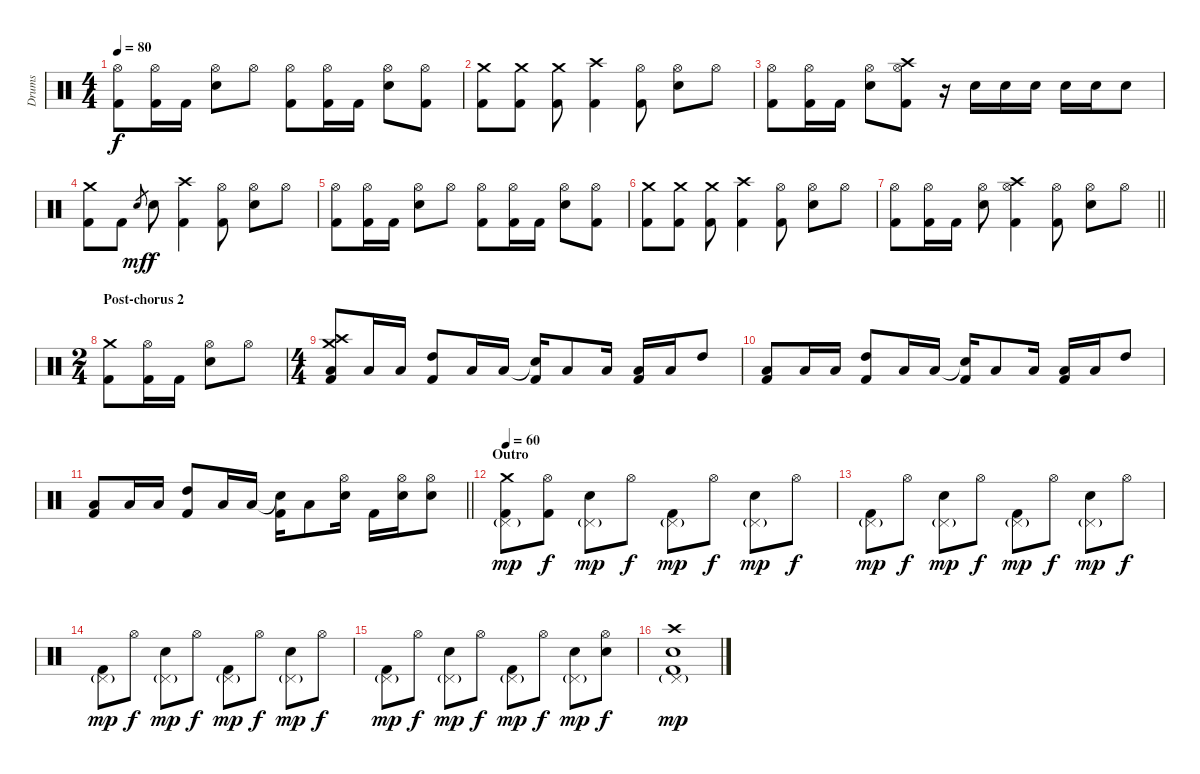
\track ("Drums" "Drums") {solo instrument percussion}
\staff {score}
\articulation defaults
\ts (4 4)
\tempo 80
\clef neutral
\ks c
("Hi-Hat (open)" "Kick (hit) 2").8{dy f} ("Hi-Hat (open)" "Kick (hit) 2").16 "Kick (hit) 2".16 ("Hi-Hat (open)" "Electric Snare (hit)").8 "Hi-Hat (open)".8 ("Hi-Hat (open)" "Kick (hit) 2").8 ("Hi-Hat (open)" "Kick (hit) 2").16 "Kick (hit) 2".16 ("Hi-Hat (open)" "Electric Snare (hit)").8 ("Hi-Hat (open)" "Kick (hit) 2").8 |
("Crash medium (hit)" "Kick (hit) 2").8 ("Crash medium (hit)" "Kick (hit) 2").8 ("Crash medium (hit)" "Kick (hit) 2").8 ("Crash high (hit)" "Kick (hit) 2").4 ("Hi-Hat (open)" "Kick (hit) 2").8 ("Hi-Hat (open)" "Electric Snare (hit)").8 "Hi-Hat (open)".8 |
("Hi-Hat (open)" "Kick (hit) 2").8 ("Hi-Hat (open)" "Kick (hit) 2").16 "Kick (hit) 2".16 ("Hi-Hat (open)" "Electric Snare (hit)").8 ("Hi-Hat (open)" "Crash high (hit)" "Kick (hit) 2").8 r.16 "Electric Snare (hit)".16 "Electric Snare (hit)".16 "Electric Snare (hit)".16 "Electric Snare (hit)".16 "Electric Snare (hit)".16 "Electric Snare (hit)".8 |
("Crash medium (hit)" "Kick (hit) 2").8 "Kick (hit) 2".8 "Electric Snare (hit)".8{gr dy mf} "Electric Snare (hit)".8{dy f} ("Crash high (hit)" "Kick (hit) 2").4 ("Hi-Hat (open)" "Kick (hit) 2").8 ("Hi-Hat (open)" "Electric Snare (hit)").8 "Hi-Hat (open)".8 |
("Hi-Hat (open)" "Kick (hit) 2").8 ("Hi-Hat (open)" "Kick (hit) 2").16 "Kick (hit) 2".16 ("Hi-Hat (open)" "Electric Snare (hit)").8 "Hi-Hat (open)".8 ("Hi-Hat (open)" "Kick (hit) 2").8 ("Hi-Hat (open)" "Kick (hit) 2").16 "Kick (hit) 2".16 ("Hi-Hat (open)" "Electric Snare (hit)").8 ("Hi-Hat (open)" "Kick (hit) 2").8 |
("Crash medium (hit)" "Kick (hit) 2").8 ("Crash medium (hit)" "Kick (hit) 2").8 ("Crash medium (hit)" "Kick (hit) 2").8 ("Crash high (hit)" "Kick (hit) 2").4 ("Hi-Hat (open)" "Kick (hit) 2").8 ("Hi-Hat (open)" "Electric Snare (hit)").8 "Hi-Hat (open)".8 |
\barLineRight lightlight
("Hi-Hat (open)" "Kick (hit) 2").8 ("Hi-Hat (open)" "Kick (hit) 2").16 "Kick (hit) 2".16 ("Hi-Hat (open)" "Electric Snare (hit)").8 ("Hi-Hat (open)" "Crash high (hit)" "Kick (hit) 2").4 ("Hi-Hat (open)" "Kick (hit) 2").8 ("Hi-Hat (open)" "Electric Snare (hit)").8 "Hi-Hat (open)".8 |
\ts (2 4)
\section ("" "Post-chorus 2")
("Crash medium (hit)" "Kick (hit) 2").8 ("Hi-Hat (open)" "Kick (hit) 2").16 "Kick (hit) 2".16 ("Hi-Hat (open)" "Electric Snare (hit)").8 "Hi-Hat (open)".8 |
\ts (4 4)
("Crash high (hit)" "Crash medium (hit)" "Low Tom (hit)" "Kick (hit) 2").8 "Low Tom (hit)".16 "Low Tom (hit)".16 ("High Tom (hit)" "Kick (hit) 2").8 "Low Tom (hit)".16 "Low Tom (hit)".16 ("Snare (hit)"{t} "Kick (hit) 2").16 "Low Tom (hit)".8 "Low Tom (hit)".16 ("Low Tom (hit)" "Kick (hit) 2").16 "Low Tom (hit)".16 "High Tom (hit)".8 |
("Low Tom (hit)" "Kick (hit) 2").8 "Low Tom (hit)".16 "Low Tom (hit)".16 ("High Tom (hit)" "Kick (hit) 2").8 "Low Tom (hit)".16 "Low Tom (hit)".16 ("Snare (hit)"{t} "Kick (hit) 2").16 "Low Tom (hit)".8 "Low Tom (hit)".16 ("Low Tom (hit)" "Kick (hit) 2").16 "Low Tom (hit)".16 "High Tom (hit)".8 |
\barLineRight lightlight
("Low Tom (hit)" "Kick (hit) 2").8 "Low Tom (hit)".16 "Low Tom (hit)".16 ("High Tom (hit)" "Kick (hit) 2").8 "Low Tom (hit)".16 "Low Tom (hit)".16 ("Snare (hit)"{t} "Kick (hit) 2").16 "Low Tom (hit)".8 ("Hi-Hat (open)" "Electric Snare (hit)").16 "Kick (hit) 2".16 ("Hi-Hat (open)" "Electric Snare (hit)").16 ("Hi-Hat (open)" "Electric Snare (hit)").8 |
\section ("" "Outro")
\tempo 60
("Pedal Hi-Hat (hit)"{g} "Crash medium (hit)" "Kick (hit) 2").8{dy mp} ("Hi-Hat (open)" "Kick (hit) 2").8{dy f} ("Pedal Hi-Hat (hit)"{g} "Electric Snare (hit)").8{dy mp} "Hi-Hat (open)".8{dy f} ("Pedal Hi-Hat (hit)"{g} "Kick (hit) 2").8{dy mp} "Hi-Hat (open)".8{dy f} ("Pedal Hi-Hat (hit)"{g} "Electric Snare (hit)").8{dy mp} "Hi-Hat (open)".8{dy f} |
("Pedal Hi-Hat (hit)"{g} "Kick (hit) 2").8{dy mp} "Hi-Hat (open)".8{dy f} ("Pedal Hi-Hat (hit)"{g} "Electric Snare (hit)").8{dy mp} "Hi-Hat (open)".8{dy f} ("Pedal Hi-Hat (hit)"{g} "Kick (hit) 2").8{dy mp} "Hi-Hat (open)".8{dy f} ("Pedal Hi-Hat (hit)"{g} "Electric Snare (hit)").8{dy mp} "Hi-Hat (open)".8{dy f} |
("Pedal Hi-Hat (hit)"{g} "Kick (hit) 2").8{dy mp} "Hi-Hat (open)".8{dy f} ("Pedal Hi-Hat (hit)"{g} "Electric Snare (hit)").8{dy mp} "Hi-Hat (open)".8{dy f} ("Pedal Hi-Hat (hit)"{g} "Kick (hit) 2").8{dy mp} "Hi-Hat (open)".8{dy f} ("Pedal Hi-Hat (hit)"{g} "Electric Snare (hit)").8{dy mp} "Hi-Hat (open)".8{dy f} |
("Pedal Hi-Hat (hit)"{g} "Kick (hit) 2").8{dy mp} "Hi-Hat (open)".8{dy f} ("Pedal Hi-Hat (hit)"{g} "Electric Snare (hit)").8{dy mp} "Hi-Hat (open)".8{dy f} ("Pedal Hi-Hat (hit)"{g} "Kick (hit) 2").8{dy mp} "Hi-Hat (open)".8{dy f} ("Pedal Hi-Hat (hit)"{g} "Electric Snare (hit)").8{dy mp} ("Hi-Hat (open)" "Electric Snare (hit)").8{dy f} |
("Pedal Hi-Hat (hit)"{g} "Crash high (hit)" "Electric Snare (hit)" "Kick (hit) 2").1{dy mp}
